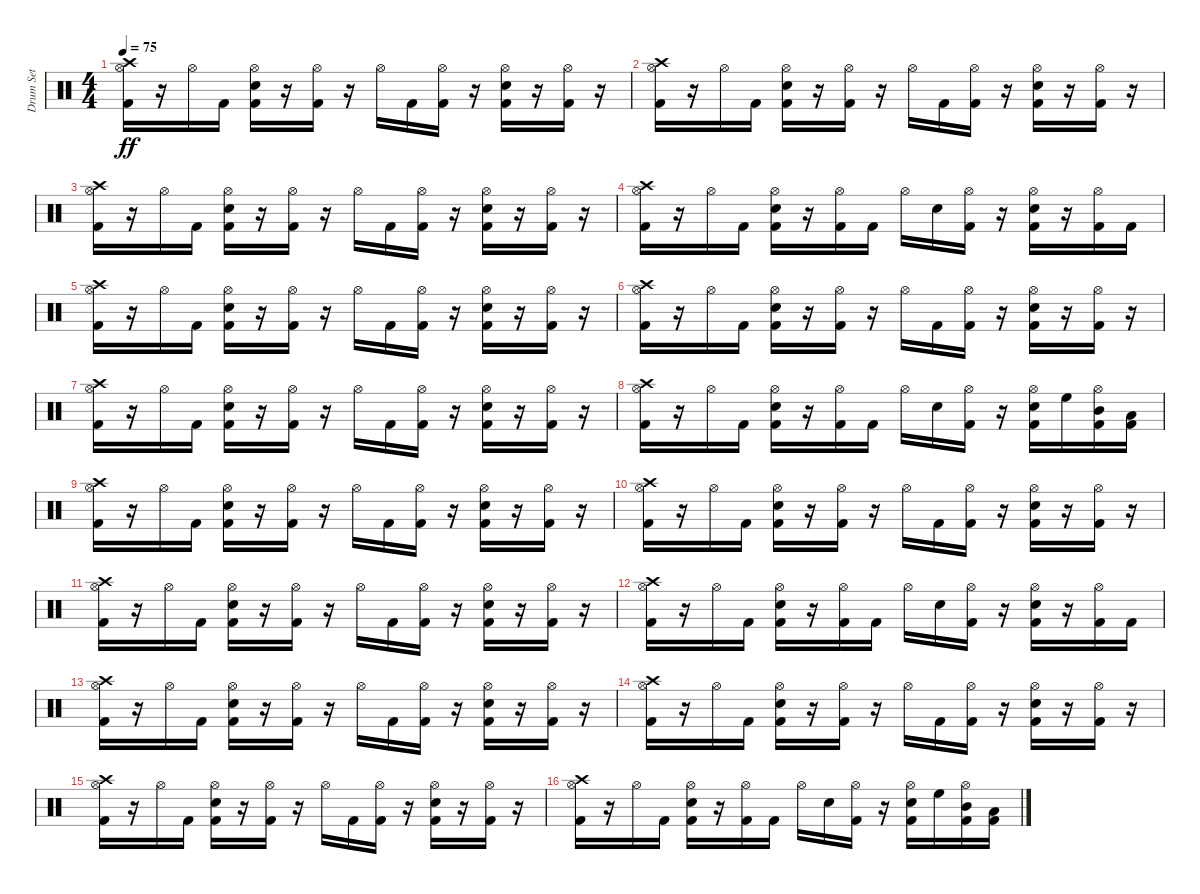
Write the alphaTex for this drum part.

\track ("Drum Set" "Drum Set") {instrument percussion}
\staff {score}
\articulation defaults
\ts (4 4)
\tempo 75
\clef neutral
\ks c
("Hi-Hat (open)" "Crash high (hit)" "Kick (hit) 2").16{dy ff} r.16 "Hi-Hat (open)".16 "Kick (hit) 2".16 ("Hi-Hat (open)" "Snare (hit) 2" "Kick (hit) 2").16 r.16 ("Hi-Hat (open)" "Kick (hit) 2").16 r.16 "Hi-Hat (open)".16 "Kick (hit) 2".16 ("Hi-Hat (open)" "Kick (hit) 2").16 r.16 ("Hi-Hat (open)" "Snare (hit) 2" "Kick (hit) 2").16 r.16 ("Hi-Hat (open)" "Kick (hit) 2").16 r.16 |
("Hi-Hat (open)" "Crash high (hit)" "Kick (hit) 2").16 r.16 "Hi-Hat (open)".16 "Kick (hit) 2".16 ("Hi-Hat (open)" "Snare (hit) 2" "Kick (hit) 2").16 r.16 ("Hi-Hat (open)" "Kick (hit) 2").16 r.16 "Hi-Hat (open)".16 "Kick (hit) 2".16 ("Hi-Hat (open)" "Kick (hit) 2").16 r.16 ("Hi-Hat (open)" "Snare (hit) 2" "Kick (hit) 2").16 r.16 ("Hi-Hat (open)" "Kick (hit) 2").16 r.16 |
("Hi-Hat (open)" "Crash high (hit)" "Kick (hit) 2").16 r.16 "Hi-Hat (open)".16 "Kick (hit) 2".16 ("Hi-Hat (open)" "Snare (hit) 2" "Kick (hit) 2").16 r.16 ("Hi-Hat (open)" "Kick (hit) 2").16 r.16 "Hi-Hat (open)".16 "Kick (hit) 2".16 ("Hi-Hat (open)" "Kick (hit) 2").16 r.16 ("Hi-Hat (open)" "Snare (hit) 2" "Kick (hit) 2").16 r.16 ("Hi-Hat (open)" "Kick (hit) 2").16 r.16 |
("Hi-Hat (open)" "Crash high (hit)" "Kick (hit) 2").16 r.16 "Hi-Hat (open)".16 "Kick (hit) 2".16 ("Hi-Hat (open)" "Snare (hit) 2" "Kick (hit) 2").16 r.16 ("Hi-Hat (open)" "Kick (hit) 2").16 "Kick (hit) 2".16 "Hi-Hat (open)".16 "Snare (hit) 2".16 ("Hi-Hat (open)" "Kick (hit) 2").16 r.16 ("Hi-Hat (open)" "Snare (hit) 2" "Kick (hit) 2").16 r.16 ("Hi-Hat (open)" "Kick (hit) 2").16 "Kick (hit) 2".16 |
("Hi-Hat (open)" "Crash high (hit)" "Kick (hit) 2").16 r.16 "Hi-Hat (open)".16 "Kick (hit) 2".16 ("Hi-Hat (open)" "Snare (hit) 2" "Kick (hit) 2").16 r.16 ("Hi-Hat (open)" "Kick (hit) 2").16 r.16 "Hi-Hat (open)".16 "Kick (hit) 2".16 ("Hi-Hat (open)" "Kick (hit) 2").16 r.16 ("Hi-Hat (open)" "Snare (hit) 2" "Kick (hit) 2").16 r.16 ("Hi-Hat (open)" "Kick (hit) 2").16 r.16 |
("Hi-Hat (open)" "Crash high (hit)" "Kick (hit) 2").16 r.16 "Hi-Hat (open)".16 "Kick (hit) 2".16 ("Hi-Hat (open)" "Snare (hit) 2" "Kick (hit) 2").16 r.16 ("Hi-Hat (open)" "Kick (hit) 2").16 r.16 "Hi-Hat (open)".16 "Kick (hit) 2".16 ("Hi-Hat (open)" "Kick (hit) 2").16 r.16 ("Hi-Hat (open)" "Snare (hit) 2" "Kick (hit) 2").16 r.16 ("Hi-Hat (open)" "Kick (hit) 2").16 r.16 |
("Hi-Hat (open)" "Crash high (hit)" "Kick (hit) 2").16 r.16 "Hi-Hat (open)".16 "Kick (hit) 2".16 ("Hi-Hat (open)" "Snare (hit) 2" "Kick (hit) 2").16 r.16 ("Hi-Hat (open)" "Kick (hit) 2").16 r.16 "Hi-Hat (open)".16 "Kick (hit) 2".16 ("Hi-Hat (open)" "Kick (hit) 2").16 r.16 ("Hi-Hat (open)" "Snare (hit) 2" "Kick (hit) 2").16 r.16 ("Hi-Hat (open)" "Kick (hit) 2").16 r.16 |
("Hi-Hat (open)" "Crash high (hit)" "Kick (hit) 2").16 r.16 "Hi-Hat (open)".16 "Kick (hit) 2".16 ("Hi-Hat (open)" "Snare (hit) 2" "Kick (hit) 2").16 r.16 ("Hi-Hat (open)" "Kick (hit) 2").16 "Kick (hit) 2".16 "Hi-Hat (open)".16 "Snare (hit) 2".16 ("Hi-Hat (open)" "Kick (hit) 2").16 r.16 ("Hi-Hat (open)" "Snare (hit) 2" "Kick (hit) 2").16 "High Floor Tom (hit)".16 ("Hi-Hat (open)" "Mid Tom (hit)" "Kick (hit) 2").16 ("Low Tom (hit)" "Kick (hit) 2").16 |
("Hi-Hat (open)" "Crash high (hit)" "Kick (hit) 2").16 r.16 "Hi-Hat (open)".16 "Kick (hit) 2".16 ("Hi-Hat (open)" "Snare (hit) 2" "Kick (hit) 2").16 r.16 ("Hi-Hat (open)" "Kick (hit) 2").16 r.16 "Hi-Hat (open)".16 "Kick (hit) 2".16 ("Hi-Hat (open)" "Kick (hit) 2").16 r.16 ("Hi-Hat (open)" "Snare (hit) 2" "Kick (hit) 2").16 r.16 ("Hi-Hat (open)" "Kick (hit) 2").16 r.16 |
("Hi-Hat (open)" "Crash high (hit)" "Kick (hit) 2").16 r.16 "Hi-Hat (open)".16 "Kick (hit) 2".16 ("Hi-Hat (open)" "Snare (hit) 2" "Kick (hit) 2").16 r.16 ("Hi-Hat (open)" "Kick (hit) 2").16 r.16 "Hi-Hat (open)".16 "Kick (hit) 2".16 ("Hi-Hat (open)" "Kick (hit) 2").16 r.16 ("Hi-Hat (open)" "Snare (hit) 2" "Kick (hit) 2").16 r.16 ("Hi-Hat (open)" "Kick (hit) 2").16 r.16 |
("Hi-Hat (open)" "Crash high (hit)" "Kick (hit) 2").16 r.16 "Hi-Hat (open)".16 "Kick (hit) 2".16 ("Hi-Hat (open)" "Snare (hit) 2" "Kick (hit) 2").16 r.16 ("Hi-Hat (open)" "Kick (hit) 2").16 r.16 "Hi-Hat (open)".16 "Kick (hit) 2".16 ("Hi-Hat (open)" "Kick (hit) 2").16 r.16 ("Hi-Hat (open)" "Snare (hit) 2" "Kick (hit) 2").16 r.16 ("Hi-Hat (open)" "Kick (hit) 2").16 r.16 |
("Hi-Hat (open)" "Crash high (hit)" "Kick (hit) 2").16 r.16 "Hi-Hat (open)".16 "Kick (hit) 2".16 ("Hi-Hat (open)" "Snare (hit) 2" "Kick (hit) 2").16 r.16 ("Hi-Hat (open)" "Kick (hit) 2").16 "Kick (hit) 2".16 "Hi-Hat (open)".16 "Snare (hit) 2".16 ("Hi-Hat (open)" "Kick (hit) 2").16 r.16 ("Hi-Hat (open)" "Snare (hit) 2" "Kick (hit) 2").16 r.16 ("Hi-Hat (open)" "Kick (hit) 2").16 "Kick (hit) 2".16 |
("Hi-Hat (open)" "Crash high (hit)" "Kick (hit) 2").16 r.16 "Hi-Hat (open)".16 "Kick (hit) 2".16 ("Hi-Hat (open)" "Snare (hit) 2" "Kick (hit) 2").16 r.16 ("Hi-Hat (open)" "Kick (hit) 2").16 r.16 "Hi-Hat (open)".16 "Kick (hit) 2".16 ("Hi-Hat (open)" "Kick (hit) 2").16 r.16 ("Hi-Hat (open)" "Snare (hit) 2" "Kick (hit) 2").16 r.16 ("Hi-Hat (open)" "Kick (hit) 2").16 r.16 |
("Hi-Hat (open)" "Crash high (hit)" "Kick (hit) 2").16 r.16 "Hi-Hat (open)".16 "Kick (hit) 2".16 ("Hi-Hat (open)" "Snare (hit) 2" "Kick (hit) 2").16 r.16 ("Hi-Hat (open)" "Kick (hit) 2").16 r.16 "Hi-Hat (open)".16 "Kick (hit) 2".16 ("Hi-Hat (open)" "Kick (hit) 2").16 r.16 ("Hi-Hat (open)" "Snare (hit) 2" "Kick (hit) 2").16 r.16 ("Hi-Hat (open)" "Kick (hit) 2").16 r.16 |
("Hi-Hat (open)" "Crash high (hit)" "Kick (hit) 2").16 r.16 "Hi-Hat (open)".16 "Kick (hit) 2".16 ("Hi-Hat (open)" "Snare (hit) 2" "Kick (hit) 2").16 r.16 ("Hi-Hat (open)" "Kick (hit) 2").16 r.16 "Hi-Hat (open)".16 "Kick (hit) 2".16 ("Hi-Hat (open)" "Kick (hit) 2").16 r.16 ("Hi-Hat (open)" "Snare (hit) 2" "Kick (hit) 2").16 r.16 ("Hi-Hat (open)" "Kick (hit) 2").16 r.16 |
("Hi-Hat (open)" "Crash high (hit)" "Kick (hit) 2").16 r.16 "Hi-Hat (open)".16 "Kick (hit) 2".16 ("Hi-Hat (open)" "Snare (hit) 2" "Kick (hit) 2").16 r.16 ("Hi-Hat (open)" "Kick (hit) 2").16 "Kick (hit) 2".16 "Hi-Hat (open)".16 "Snare (hit) 2".16 ("Hi-Hat (open)" "Kick (hit) 2").16 r.16 ("Hi-Hat (open)" "Snare (hit) 2" "Kick (hit) 2").16 "High Floor Tom (hit)".16 ("Hi-Hat (open)" "Mid Tom (hit)" "Kick (hit) 2").16 ("Low Tom (hit)" "Kick (hit) 2").16
